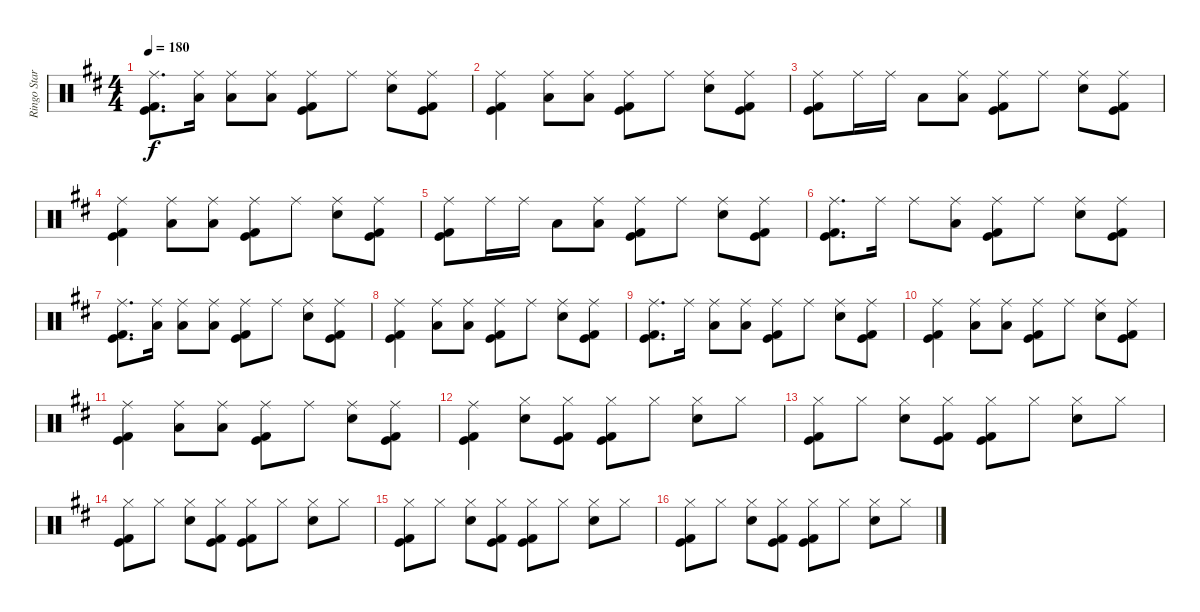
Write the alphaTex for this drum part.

\track ("Ringo Starr" "Ringo Star") {instrument percussion}
\staff {score}
\articulation defaults
\ts (4 4)
\tempo 180
\clef neutral
\ks d
("Ride (middle)" "Kick (hit) 2" "Kick (hit)").8{d dy f} ("Ride (middle)" "Low Tom (hit)").16 ("Ride (middle)" "Low Tom (hit)").8 ("Ride (middle)" "Low Tom (hit)").8 ("Ride (middle)" "Kick (hit) 2" "Kick (hit)").8 "Ride (middle)".8 ("Ride (middle)" "Electric Snare (hit)").8 ("Ride (middle)" "Kick (hit) 2" "Kick (hit)").8 |
("Ride (middle)" "Kick (hit) 2" "Kick (hit)").4 ("Ride (middle)" "Low Tom (hit)").8 ("Ride (middle)" "Low Tom (hit)").8 ("Ride (middle)" "Kick (hit) 2" "Kick (hit)").8 "Ride (middle)".8 ("Ride (middle)" "Electric Snare (hit)").8 ("Ride (middle)" "Kick (hit) 2" "Kick (hit)").8 |
("Ride (middle)" "Kick (hit) 2" "Kick (hit)").8 "Ride (middle)".16 "Ride (middle)".16 "Low Tom (hit)".8 ("Ride (middle)" "Low Tom (hit)").8 ("Ride (middle)" "Kick (hit) 2" "Kick (hit)").8 "Ride (middle)".8 ("Ride (middle)" "Electric Snare (hit)").8 ("Ride (middle)" "Kick (hit) 2" "Kick (hit)").8 |
("Ride (middle)" "Kick (hit) 2" "Kick (hit)").4 ("Ride (middle)" "Low Tom (hit)").8 ("Ride (middle)" "Low Tom (hit)").8 ("Ride (middle)" "Kick (hit) 2" "Kick (hit)").8 "Ride (middle)".8 ("Ride (middle)" "Electric Snare (hit)").8 ("Ride (middle)" "Kick (hit) 2" "Kick (hit)").8 |
("Ride (middle)" "Kick (hit) 2" "Kick (hit)").8 "Ride (middle)".16 "Ride (middle)".16 "Low Tom (hit)".8 ("Ride (middle)" "Low Tom (hit)").8 ("Ride (middle)" "Kick (hit) 2" "Kick (hit)").8 "Ride (middle)".8 ("Ride (middle)" "Electric Snare (hit)").8 ("Ride (middle)" "Kick (hit) 2" "Kick (hit)").8 |
("Ride (middle)" "Kick (hit) 2" "Kick (hit)").8{d} "Ride (middle)".16 "Ride (middle)".8 ("Ride (middle)" "Low Tom (hit)").8 ("Ride (middle)" "Kick (hit) 2" "Kick (hit)").8 "Ride (middle)".8 ("Ride (middle)" "Electric Snare (hit)").8 ("Ride (middle)" "Kick (hit) 2" "Kick (hit)").8 |
("Ride (middle)" "Kick (hit) 2" "Kick (hit)").8{d} ("Ride (middle)" "Low Tom (hit)").16 ("Ride (middle)" "Low Tom (hit)").8 ("Ride (middle)" "Low Tom (hit)").8 ("Ride (middle)" "Kick (hit) 2" "Kick (hit)").8 "Ride (middle)".8 ("Ride (middle)" "Electric Snare (hit)").8 ("Ride (middle)" "Kick (hit) 2" "Kick (hit)").8 |
("Ride (middle)" "Kick (hit) 2" "Kick (hit)").4 ("Ride (middle)" "Low Tom (hit)").8 ("Ride (middle)" "Low Tom (hit)").8 ("Ride (middle)" "Kick (hit) 2" "Kick (hit)").8 "Ride (middle)".8 ("Ride (middle)" "Electric Snare (hit)").8 ("Ride (middle)" "Kick (hit) 2" "Kick (hit)").8 |
("Ride (middle)" "Kick (hit) 2" "Kick (hit)").8{d} "Ride (middle)".16 ("Ride (middle)" "Low Tom (hit)").8 ("Ride (middle)" "Low Tom (hit)").8 ("Ride (middle)" "Kick (hit) 2" "Kick (hit)").8 "Ride (middle)".8 ("Ride (middle)" "Electric Snare (hit)").8 ("Ride (middle)" "Kick (hit) 2" "Kick (hit)").8 |
("Ride (middle)" "Kick (hit) 2" "Kick (hit)").4 ("Ride (middle)" "Low Tom (hit)").8 ("Ride (middle)" "Low Tom (hit)").8 ("Ride (middle)" "Kick (hit) 2" "Kick (hit)").8 "Ride (middle)".8 ("Ride (middle)" "Electric Snare (hit)").8 ("Ride (middle)" "Kick (hit) 2" "Kick (hit)").8 |
("Ride (middle)" "Kick (hit) 2" "Kick (hit)").4 ("Ride (middle)" "Low Tom (hit)").8 ("Ride (middle)" "Low Tom (hit)").8 ("Ride (middle)" "Kick (hit) 2" "Kick (hit)").8 "Ride (middle)".8 ("Ride (middle)" "Electric Snare (hit)").8 ("Ride (middle)" "Kick (hit) 2" "Kick (hit)").8 |
("Ride (middle)" "Kick (hit) 2" "Kick (hit)").4 ("Hi-Hat (closed)" "Electric Snare (hit)").8 ("Hi-Hat (closed)" "Kick (hit) 2" "Kick (hit)").8 ("Hi-Hat (closed)" "Kick (hit) 2" "Kick (hit)").8 "Hi-Hat (closed)".8 ("Hi-Hat (closed)" "Electric Snare (hit)").8 "Hi-Hat (closed)".8 |
("Hi-Hat (closed)" "Kick (hit) 2" "Kick (hit)").8 "Hi-Hat (closed)".8 ("Hi-Hat (closed)" "Electric Snare (hit)").8 ("Hi-Hat (closed)" "Kick (hit) 2" "Kick (hit)").8 ("Hi-Hat (closed)" "Kick (hit) 2" "Kick (hit)").8 "Hi-Hat (closed)".8 ("Hi-Hat (closed)" "Electric Snare (hit)").8 "Hi-Hat (closed)".8 |
("Hi-Hat (closed)" "Kick (hit) 2" "Kick (hit)").8 "Hi-Hat (closed)".8 ("Hi-Hat (closed)" "Electric Snare (hit)").8 ("Hi-Hat (closed)" "Kick (hit) 2" "Kick (hit)").8 ("Hi-Hat (closed)" "Kick (hit) 2" "Kick (hit)").8 "Hi-Hat (closed)".8 ("Hi-Hat (closed)" "Electric Snare (hit)").8 "Hi-Hat (closed)".8 |
("Hi-Hat (closed)" "Kick (hit) 2" "Kick (hit)").8 "Hi-Hat (closed)".8 ("Hi-Hat (closed)" "Electric Snare (hit)").8 ("Hi-Hat (closed)" "Kick (hit) 2" "Kick (hit)").8 ("Hi-Hat (closed)" "Kick (hit) 2" "Kick (hit)").8 "Hi-Hat (closed)".8 ("Hi-Hat (closed)" "Electric Snare (hit)").8 "Hi-Hat (closed)".8 |
("Hi-Hat (closed)" "Kick (hit) 2" "Kick (hit)").8 "Hi-Hat (closed)".8 ("Hi-Hat (closed)" "Electric Snare (hit)").8 ("Hi-Hat (closed)" "Kick (hit) 2" "Kick (hit)").8 ("Hi-Hat (closed)" "Kick (hit) 2" "Kick (hit)").8 "Hi-Hat (closed)".8 ("Hi-Hat (closed)" "Electric Snare (hit)").8 "Hi-Hat (closed)".8
